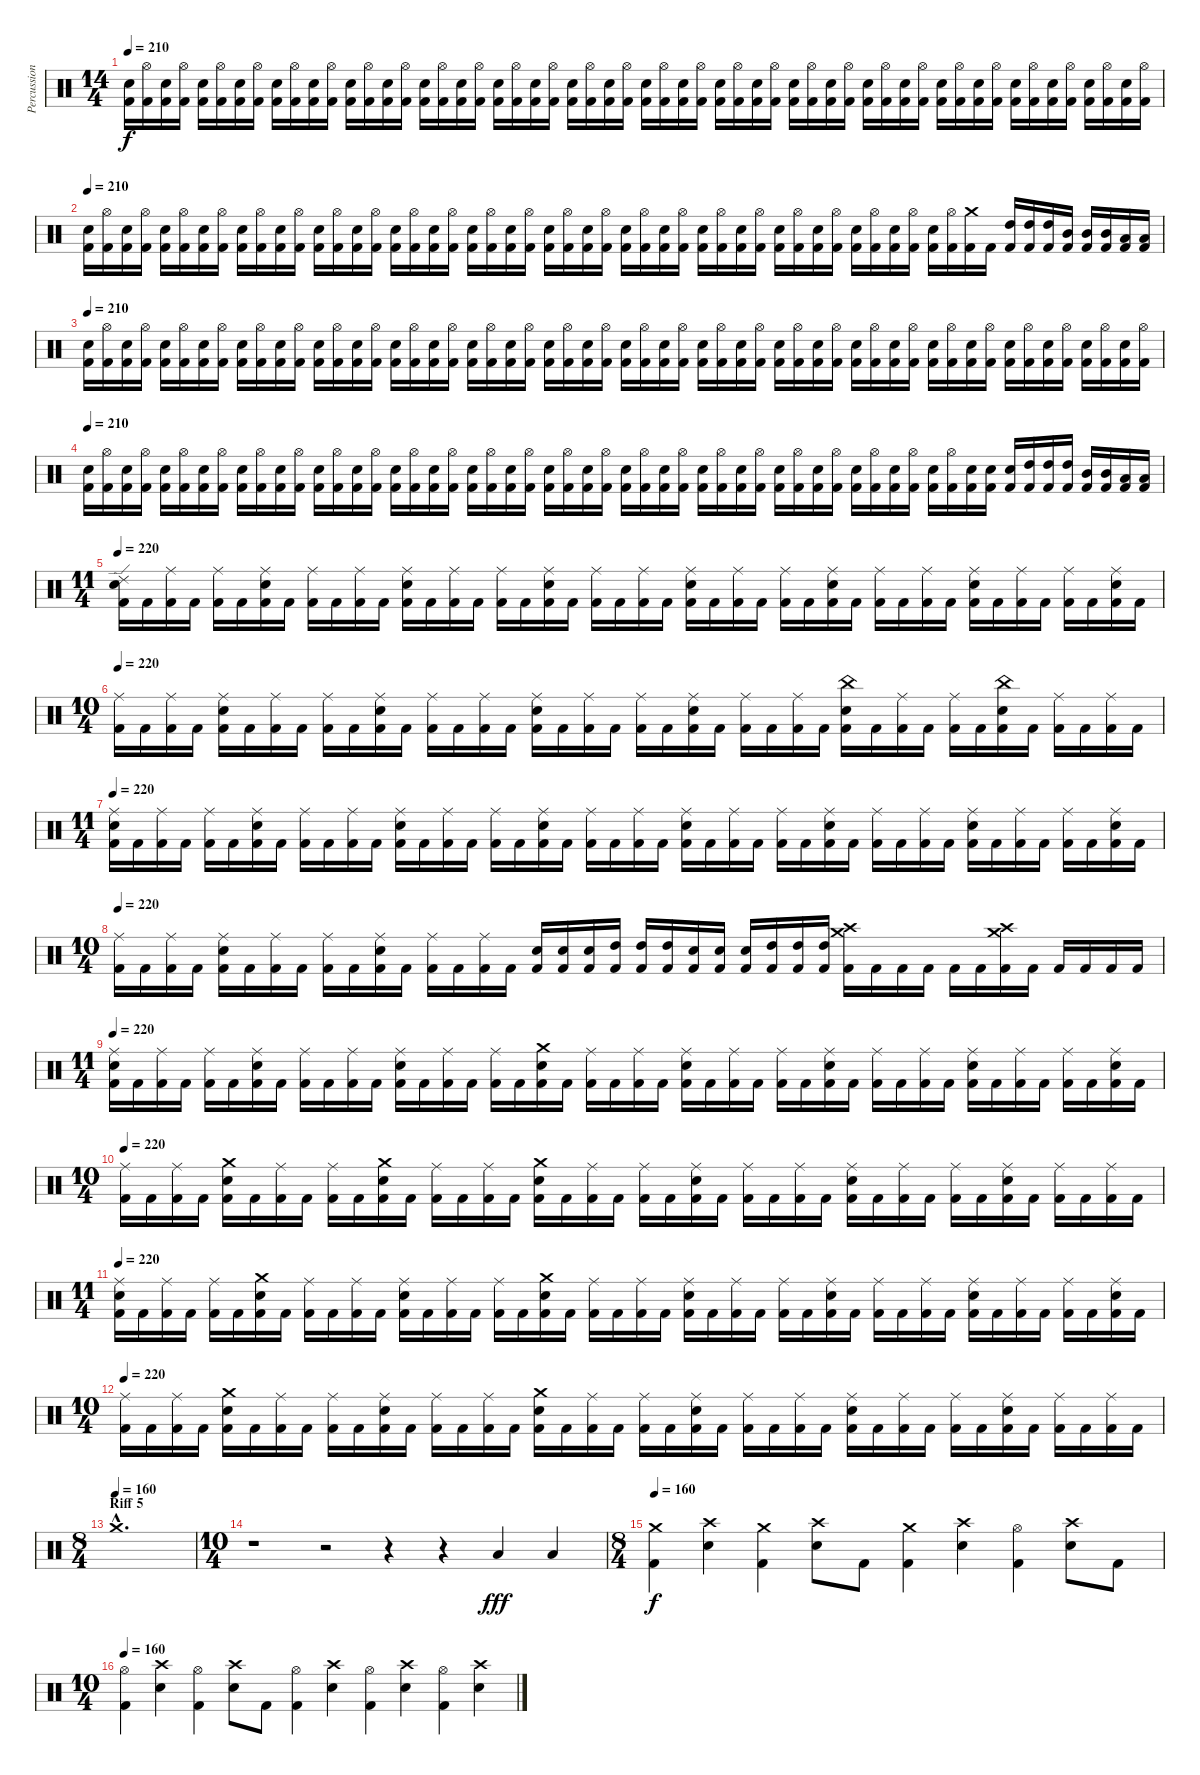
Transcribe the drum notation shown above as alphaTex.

\track ("Percussion" "Percussion") {instrument percussion}
\staff {score}
\articulation defaults
\ts (14 4)
\tempo 210
\clef neutral
\ks c
("Electric Snare (hit)" "Kick (hit) 2").16{dy f} ("Hi-Hat (open)" "Kick (hit) 2").16 ("Electric Snare (hit)" "Kick (hit) 2").16 ("Hi-Hat (open)" "Kick (hit) 2").16 ("Electric Snare (hit)" "Kick (hit) 2").16 ("Hi-Hat (open)" "Kick (hit) 2").16 ("Electric Snare (hit)" "Kick (hit) 2").16 ("Hi-Hat (open)" "Kick (hit) 2").16 ("Electric Snare (hit)" "Kick (hit) 2").16 ("Hi-Hat (open)" "Kick (hit) 2").16 ("Electric Snare (hit)" "Kick (hit) 2").16 ("Hi-Hat (open)" "Kick (hit) 2").16 ("Electric Snare (hit)" "Kick (hit) 2").16 ("Hi-Hat (open)" "Kick (hit) 2").16 ("Electric Snare (hit)" "Kick (hit) 2").16 ("Hi-Hat (open)" "Kick (hit) 2").16 ("Electric Snare (hit)" "Kick (hit) 2").16 ("Hi-Hat (open)" "Kick (hit) 2").16 ("Electric Snare (hit)" "Kick (hit) 2").16 ("Hi-Hat (open)" "Kick (hit) 2").16 ("Electric Snare (hit)" "Kick (hit) 2").16 ("Hi-Hat (open)" "Kick (hit) 2").16 ("Electric Snare (hit)" "Kick (hit) 2").16 ("Hi-Hat (open)" "Kick (hit) 2").16 ("Electric Snare (hit)" "Kick (hit) 2").16 ("Hi-Hat (open)" "Kick (hit) 2").16 ("Electric Snare (hit)" "Kick (hit) 2").16 ("Hi-Hat (open)" "Kick (hit) 2").16 ("Electric Snare (hit)" "Kick (hit) 2").16 ("Hi-Hat (open)" "Kick (hit) 2").16 ("Electric Snare (hit)" "Kick (hit) 2").16 ("Hi-Hat (open)" "Kick (hit) 2").16 ("Electric Snare (hit)" "Kick (hit) 2").16 ("Hi-Hat (open)" "Kick (hit) 2").16 ("Electric Snare (hit)" "Kick (hit) 2").16 ("Hi-Hat (open)" "Kick (hit) 2").16 ("Electric Snare (hit)" "Kick (hit) 2").16 ("Hi-Hat (open)" "Kick (hit) 2").16 ("Electric Snare (hit)" "Kick (hit) 2").16 ("Hi-Hat (open)" "Kick (hit) 2").16 ("Electric Snare (hit)" "Kick (hit) 2").16 ("Hi-Hat (open)" "Kick (hit) 2").16 ("Electric Snare (hit)" "Kick (hit) 2").16 ("Hi-Hat (open)" "Kick (hit) 2").16 ("Electric Snare (hit)" "Kick (hit) 2").16 ("Hi-Hat (open)" "Kick (hit) 2").16 ("Electric Snare (hit)" "Kick (hit) 2").16 ("Hi-Hat (open)" "Kick (hit) 2").16 ("Electric Snare (hit)" "Kick (hit) 2").16 ("Hi-Hat (open)" "Kick (hit) 2").16 ("Electric Snare (hit)" "Kick (hit) 2").16 ("Hi-Hat (open)" "Kick (hit) 2").16 ("Electric Snare (hit)" "Kick (hit) 2").16 ("Hi-Hat (open)" "Kick (hit) 2").16 ("Electric Snare (hit)" "Kick (hit) 2").16 ("Hi-Hat (open)" "Kick (hit) 2").16 |
\tempo 210
("Electric Snare (hit)" "Kick (hit) 2").16 ("Hi-Hat (open)" "Kick (hit) 2").16 ("Electric Snare (hit)" "Kick (hit) 2").16 ("Hi-Hat (open)" "Kick (hit) 2").16 ("Electric Snare (hit)" "Kick (hit) 2").16 ("Hi-Hat (open)" "Kick (hit) 2").16 ("Electric Snare (hit)" "Kick (hit) 2").16 ("Hi-Hat (open)" "Kick (hit) 2").16 ("Electric Snare (hit)" "Kick (hit) 2").16 ("Hi-Hat (open)" "Kick (hit) 2").16 ("Electric Snare (hit)" "Kick (hit) 2").16 ("Hi-Hat (open)" "Kick (hit) 2").16 ("Electric Snare (hit)" "Kick (hit) 2").16 ("Hi-Hat (open)" "Kick (hit) 2").16 ("Electric Snare (hit)" "Kick (hit) 2").16 ("Hi-Hat (open)" "Kick (hit) 2").16 ("Electric Snare (hit)" "Kick (hit) 2").16 ("Hi-Hat (open)" "Kick (hit) 2").16 ("Electric Snare (hit)" "Kick (hit) 2").16 ("Hi-Hat (open)" "Kick (hit) 2").16 ("Electric Snare (hit)" "Kick (hit) 2").16 ("Hi-Hat (open)" "Kick (hit) 2").16 ("Electric Snare (hit)" "Kick (hit) 2").16 ("Hi-Hat (open)" "Kick (hit) 2").16 ("Electric Snare (hit)" "Kick (hit) 2").16 ("Hi-Hat (open)" "Kick (hit) 2").16 ("Electric Snare (hit)" "Kick (hit) 2").16 ("Hi-Hat (open)" "Kick (hit) 2").16 ("Electric Snare (hit)" "Kick (hit) 2").16 ("Hi-Hat (open)" "Kick (hit) 2").16 ("Electric Snare (hit)" "Kick (hit) 2").16 ("Hi-Hat (open)" "Kick (hit) 2").16 ("Electric Snare (hit)" "Kick (hit) 2").16 ("Hi-Hat (open)" "Kick (hit) 2").16 ("Electric Snare (hit)" "Kick (hit) 2").16 ("Hi-Hat (open)" "Kick (hit) 2").16 ("Electric Snare (hit)" "Kick (hit) 2").16 ("Hi-Hat (open)" "Kick (hit) 2").16 ("Electric Snare (hit)" "Kick (hit) 2").16 ("Hi-Hat (open)" "Kick (hit) 2").16 ("Electric Snare (hit)" "Kick (hit) 2").16 ("Hi-Hat (open)" "Kick (hit) 2").16 ("Electric Snare (hit)" "Kick (hit) 2").16 ("Hi-Hat (open)" "Kick (hit) 2").16 ("Electric Snare (hit)" "Kick (hit) 2").16 ("Hi-Hat (open)" "Kick (hit) 2").16 ("Crash medium (hit)" "Kick (hit) 2").16 "Kick (hit) 2".16 ("High Tom (hit)" "Kick (hit) 2").16 ("High Tom (hit)" "Kick (hit) 2").16 ("High Tom (hit)" "Kick (hit) 2").16 ("Mid Tom (hit)" "Kick (hit) 2").16 ("Mid Tom (hit)" "Kick (hit) 2").16 ("Mid Tom (hit)" "Kick (hit) 2").16 ("Low Tom (hit)" "Kick (hit) 2").16 ("Low Tom (hit)" "Kick (hit) 2").16 |
\tempo 210
("Electric Snare (hit)" "Kick (hit) 2").16 ("Hi-Hat (open)" "Kick (hit) 2").16 ("Electric Snare (hit)" "Kick (hit) 2").16 ("Hi-Hat (open)" "Kick (hit) 2").16 ("Electric Snare (hit)" "Kick (hit) 2").16 ("Hi-Hat (open)" "Kick (hit) 2").16 ("Electric Snare (hit)" "Kick (hit) 2").16 ("Hi-Hat (open)" "Kick (hit) 2").16 ("Electric Snare (hit)" "Kick (hit) 2").16 ("Hi-Hat (open)" "Kick (hit) 2").16 ("Electric Snare (hit)" "Kick (hit) 2").16 ("Hi-Hat (open)" "Kick (hit) 2").16 ("Electric Snare (hit)" "Kick (hit) 2").16 ("Hi-Hat (open)" "Kick (hit) 2").16 ("Electric Snare (hit)" "Kick (hit) 2").16 ("Hi-Hat (open)" "Kick (hit) 2").16 ("Electric Snare (hit)" "Kick (hit) 2").16 ("Hi-Hat (open)" "Kick (hit) 2").16 ("Electric Snare (hit)" "Kick (hit) 2").16 ("Hi-Hat (open)" "Kick (hit) 2").16 ("Electric Snare (hit)" "Kick (hit) 2").16 ("Hi-Hat (open)" "Kick (hit) 2").16 ("Electric Snare (hit)" "Kick (hit) 2").16 ("Hi-Hat (open)" "Kick (hit) 2").16 ("Electric Snare (hit)" "Kick (hit) 2").16 ("Hi-Hat (open)" "Kick (hit) 2").16 ("Electric Snare (hit)" "Kick (hit) 2").16 ("Hi-Hat (open)" "Kick (hit) 2").16 ("Electric Snare (hit)" "Kick (hit) 2").16 ("Hi-Hat (open)" "Kick (hit) 2").16 ("Electric Snare (hit)" "Kick (hit) 2").16 ("Hi-Hat (open)" "Kick (hit) 2").16 ("Electric Snare (hit)" "Kick (hit) 2").16 ("Hi-Hat (open)" "Kick (hit) 2").16 ("Electric Snare (hit)" "Kick (hit) 2").16 ("Hi-Hat (open)" "Kick (hit) 2").16 ("Electric Snare (hit)" "Kick (hit) 2").16 ("Hi-Hat (open)" "Kick (hit) 2").16 ("Electric Snare (hit)" "Kick (hit) 2").16 ("Hi-Hat (open)" "Kick (hit) 2").16 ("Electric Snare (hit)" "Kick (hit) 2").16 ("Hi-Hat (open)" "Kick (hit) 2").16 ("Electric Snare (hit)" "Kick (hit) 2").16 ("Hi-Hat (open)" "Kick (hit) 2").16 ("Electric Snare (hit)" "Kick (hit) 2").16 ("Hi-Hat (open)" "Kick (hit) 2").16 ("Electric Snare (hit)" "Kick (hit) 2").16 ("Hi-Hat (open)" "Kick (hit) 2").16 ("Electric Snare (hit)" "Kick (hit) 2").16 ("Hi-Hat (open)" "Kick (hit) 2").16 ("Electric Snare (hit)" "Kick (hit) 2").16 ("Hi-Hat (open)" "Kick (hit) 2").16 ("Electric Snare (hit)" "Kick (hit) 2").16 ("Hi-Hat (open)" "Kick (hit) 2").16 ("Electric Snare (hit)" "Kick (hit) 2").16 ("Hi-Hat (open)" "Kick (hit) 2").16 |
\tempo 210
("Electric Snare (hit)" "Kick (hit) 2").16 ("Hi-Hat (open)" "Kick (hit) 2").16 ("Electric Snare (hit)" "Kick (hit) 2").16 ("Hi-Hat (open)" "Kick (hit) 2").16 ("Electric Snare (hit)" "Kick (hit) 2").16 ("Hi-Hat (open)" "Kick (hit) 2").16 ("Electric Snare (hit)" "Kick (hit) 2").16 ("Hi-Hat (open)" "Kick (hit) 2").16 ("Electric Snare (hit)" "Kick (hit) 2").16 ("Hi-Hat (open)" "Kick (hit) 2").16 ("Electric Snare (hit)" "Kick (hit) 2").16 ("Hi-Hat (open)" "Kick (hit) 2").16 ("Electric Snare (hit)" "Kick (hit) 2").16 ("Hi-Hat (open)" "Kick (hit) 2").16 ("Electric Snare (hit)" "Kick (hit) 2").16 ("Hi-Hat (open)" "Kick (hit) 2").16 ("Electric Snare (hit)" "Kick (hit) 2").16 ("Hi-Hat (open)" "Kick (hit) 2").16 ("Electric Snare (hit)" "Kick (hit) 2").16 ("Hi-Hat (open)" "Kick (hit) 2").16 ("Electric Snare (hit)" "Kick (hit) 2").16 ("Hi-Hat (open)" "Kick (hit) 2").16 ("Electric Snare (hit)" "Kick (hit) 2").16 ("Hi-Hat (open)" "Kick (hit) 2").16 ("Electric Snare (hit)" "Kick (hit) 2").16 ("Hi-Hat (open)" "Kick (hit) 2").16 ("Electric Snare (hit)" "Kick (hit) 2").16 ("Hi-Hat (open)" "Kick (hit) 2").16 ("Electric Snare (hit)" "Kick (hit) 2").16 ("Hi-Hat (open)" "Kick (hit) 2").16 ("Electric Snare (hit)" "Kick (hit) 2").16 ("Hi-Hat (open)" "Kick (hit) 2").16 ("Electric Snare (hit)" "Kick (hit) 2").16 ("Hi-Hat (open)" "Kick (hit) 2").16 ("Electric Snare (hit)" "Kick (hit) 2").16 ("Hi-Hat (open)" "Kick (hit) 2").16 ("Electric Snare (hit)" "Kick (hit) 2").16 ("Hi-Hat (open)" "Kick (hit) 2").16 ("Electric Snare (hit)" "Kick (hit) 2").16 ("Hi-Hat (open)" "Kick (hit) 2").16 ("Electric Snare (hit)" "Kick (hit) 2").16 ("Hi-Hat (open)" "Kick (hit) 2").16 ("Electric Snare (hit)" "Kick (hit) 2").16 ("Hi-Hat (open)" "Kick (hit) 2").16 ("Electric Snare (hit)" "Kick (hit) 2").16 ("Hi-Hat (open)" "Kick (hit) 2").16 ("Electric Snare (hit)" "Kick (hit) 2").16 ("Electric Snare (hit)" "Kick (hit) 2").16 ("Electric Snare (hit)" "Kick (hit) 2").16 ("High Tom (hit)" "Kick (hit) 2").16 ("High Tom (hit)" "Kick (hit) 2").16 ("High Tom (hit)" "Kick (hit) 2").16 ("Mid Tom (hit)" "Kick (hit) 2").16 ("Mid Tom (hit)" "Kick (hit) 2").16 ("Low Tom (hit)" "Kick (hit) 2").16 ("Low Tom (hit)" "Kick (hit) 2").16 |
\ts (11 4)
\tempo 220
("Kick (hit) 2" "Electric Snare (hit)" "Ride (edge) 2").16 "Kick (hit) 2".16 ("Kick (hit) 2" "Ride (middle)").16 "Kick (hit) 2".16 ("Kick (hit) 2" "Ride (middle)").16 "Kick (hit) 2".16 ("Kick (hit) 2" "Electric Snare (hit)" "Ride (middle)").16 "Kick (hit) 2".16 ("Kick (hit) 2" "Ride (middle)").16 "Kick (hit) 2".16 ("Kick (hit) 2" "Ride (middle)").16 "Kick (hit) 2".16 ("Kick (hit) 2" "Electric Snare (hit)" "Ride (middle)").16 "Kick (hit) 2".16 ("Kick (hit) 2" "Ride (middle)").16 "Kick (hit) 2".16 ("Kick (hit) 2" "Ride (middle)").16 "Kick (hit) 2".16 ("Kick (hit) 2" "Electric Snare (hit)" "Ride (middle)").16 "Kick (hit) 2".16 ("Kick (hit) 2" "Ride (middle)").16 "Kick (hit) 2".16 ("Kick (hit) 2" "Ride (middle)").16 "Kick (hit) 2".16 ("Kick (hit) 2" "Electric Snare (hit)" "Ride (middle)").16 "Kick (hit) 2".16 ("Kick (hit) 2" "Ride (middle)").16 "Kick (hit) 2".16 ("Kick (hit) 2" "Ride (middle)").16 "Kick (hit) 2".16 ("Kick (hit) 2" "Electric Snare (hit)" "Ride (middle)").16 "Kick (hit) 2".16 ("Kick (hit) 2" "Ride (middle)").16 "Kick (hit) 2".16 ("Kick (hit) 2" "Ride (middle)").16 "Kick (hit) 2".16 ("Kick (hit) 2" "Electric Snare (hit)" "Ride (middle)").16 "Kick (hit) 2".16 ("Kick (hit) 2" "Ride (middle)").16 "Kick (hit) 2".16 ("Kick (hit) 2" "Ride (middle)").16 "Kick (hit) 2".16 ("Kick (hit) 2" "Electric Snare (hit)" "Ride (middle)").16 "Kick (hit) 2".16 |
\ts (10 4)
\tempo 220
("Kick (hit) 2" "Ride (middle)").16 "Kick (hit) 2".16 ("Kick (hit) 2" "Ride (middle)").16 "Kick (hit) 2".16 ("Kick (hit) 2" "Electric Snare (hit)" "Ride (middle)").16 "Kick (hit) 2".16 ("Kick (hit) 2" "Ride (middle)").16 "Kick (hit) 2".16 ("Kick (hit) 2" "Ride (middle)").16 "Kick (hit) 2".16 ("Kick (hit) 2" "Electric Snare (hit)" "Ride (middle)").16 "Kick (hit) 2".16 ("Kick (hit) 2" "Ride (middle)").16 "Kick (hit) 2".16 ("Kick (hit) 2" "Ride (middle)").16 "Kick (hit) 2".16 ("Kick (hit) 2" "Electric Snare (hit)" "Ride (middle)").16 "Kick (hit) 2".16 ("Kick (hit) 2" "Ride (middle)").16 "Kick (hit) 2".16 ("Kick (hit) 2" "Ride (middle)").16 "Kick (hit) 2".16 ("Kick (hit) 2" "Electric Snare (hit)" "Ride (middle)").16 "Kick (hit) 2".16 ("Kick (hit) 2" "Ride (middle)").16 "Kick (hit) 2".16 ("Kick (hit) 2" "Ride (middle)").16 "Kick (hit) 2".16 ("Kick (hit) 2" "Electric Snare (hit)" "China (hit)").16 "Kick (hit) 2".16 ("Kick (hit) 2" "Ride (middle)").16 "Kick (hit) 2".16 ("Kick (hit) 2" "Ride (middle)").16 "Kick (hit) 2".16 ("Kick (hit) 2" "Electric Snare (hit)" "China (hit)").16 "Kick (hit) 2".16 ("Kick (hit) 2" "Ride (middle)").16 "Kick (hit) 2".16 ("Kick (hit) 2" "Ride (middle)").16 "Kick (hit) 2".16 |
\ts (11 4)
\tempo 220
("Kick (hit) 2" "Electric Snare (hit)" "Ride (middle)").16 "Kick (hit) 2".16 ("Kick (hit) 2" "Ride (middle)").16 "Kick (hit) 2".16 ("Kick (hit) 2" "Ride (middle)").16 "Kick (hit) 2".16 ("Kick (hit) 2" "Electric Snare (hit)" "Ride (middle)").16 "Kick (hit) 2".16 ("Kick (hit) 2" "Ride (middle)").16 "Kick (hit) 2".16 ("Kick (hit) 2" "Ride (middle)").16 "Kick (hit) 2".16 ("Kick (hit) 2" "Electric Snare (hit)" "Ride (middle)").16 "Kick (hit) 2".16 ("Kick (hit) 2" "Ride (middle)").16 "Kick (hit) 2".16 ("Kick (hit) 2" "Ride (middle)").16 "Kick (hit) 2".16 ("Kick (hit) 2" "Electric Snare (hit)" "Ride (middle)").16 "Kick (hit) 2".16 ("Kick (hit) 2" "Ride (middle)").16 "Kick (hit) 2".16 ("Kick (hit) 2" "Ride (middle)").16 "Kick (hit) 2".16 ("Kick (hit) 2" "Electric Snare (hit)" "Ride (middle)").16 "Kick (hit) 2".16 ("Kick (hit) 2" "Ride (middle)").16 "Kick (hit) 2".16 ("Kick (hit) 2" "Ride (middle)").16 "Kick (hit) 2".16 ("Kick (hit) 2" "Electric Snare (hit)" "Ride (middle)").16 "Kick (hit) 2".16 ("Kick (hit) 2" "Ride (middle)").16 "Kick (hit) 2".16 ("Kick (hit) 2" "Ride (middle)").16 "Kick (hit) 2".16 ("Kick (hit) 2" "Electric Snare (hit)" "Ride (middle)").16 "Kick (hit) 2".16 ("Kick (hit) 2" "Ride (middle)").16 "Kick (hit) 2".16 ("Kick (hit) 2" "Ride (middle)").16 "Kick (hit) 2".16 ("Kick (hit) 2" "Electric Snare (hit)" "Ride (middle)").16 "Kick (hit) 2".16 |
\ts (10 4)
\tempo 220
("Kick (hit) 2" "Ride (middle)").16 "Kick (hit) 2".16 ("Kick (hit) 2" "Ride (middle)").16 "Kick (hit) 2".16 ("Kick (hit) 2" "Electric Snare (hit)" "Ride (middle)").16 "Kick (hit) 2".16 ("Kick (hit) 2" "Ride (middle)").16 "Kick (hit) 2".16 ("Kick (hit) 2" "Ride (middle)").16 "Kick (hit) 2".16 ("Kick (hit) 2" "Electric Snare (hit)" "Ride (middle)").16 "Kick (hit) 2".16 ("Kick (hit) 2" "Ride (middle)").16 "Kick (hit) 2".16 ("Kick (hit) 2" "Ride (middle)").16 "Kick (hit) 2".16 ("Kick (hit) 2" "Electric Snare (hit)").16 ("Kick (hit) 2" "Electric Snare (hit)").16 ("Kick (hit) 2" "Electric Snare (hit)").16 ("Kick (hit) 2" "High Tom (hit)").16 ("Kick (hit) 2" "High Tom (hit)").16 ("Kick (hit) 2" "High Tom (hit)").16 ("Kick (hit) 2" "Electric Snare (hit)").16 ("Kick (hit) 2" "Electric Snare (hit)").16 ("Kick (hit) 2" "Electric Snare (hit)").16 ("Kick (hit) 2" "High Tom (hit)").16 ("Kick (hit) 2" "High Tom (hit)").16 ("Kick (hit) 2" "High Tom (hit)").16 ("Kick (hit) 2" "Crash high (hit)" "Crash medium (hit)").16 "Kick (hit) 2".16 "Kick (hit) 2".16 "Kick (hit) 2".16 "Kick (hit) 2".16 "Kick (hit) 2".16 ("Kick (hit) 2" "Crash high (hit)" "Crash medium (hit)").16 "Kick (hit) 2".16 "Kick (hit) 2".16 "Kick (hit) 2".16 "Kick (hit) 2".16 "Kick (hit) 2".16 |
\ts (11 4)
\tempo 220
("Kick (hit) 2" "Electric Snare (hit)" "Ride (middle)").16 "Kick (hit) 2".16 ("Kick (hit) 2" "Ride (middle)").16 "Kick (hit) 2".16 ("Kick (hit) 2" "Ride (middle)").16 "Kick (hit) 2".16 ("Kick (hit) 2" "Electric Snare (hit)" "Ride (middle)").16 "Kick (hit) 2".16 ("Kick (hit) 2" "Ride (middle)").16 "Kick (hit) 2".16 ("Kick (hit) 2" "Ride (middle)").16 "Kick (hit) 2".16 ("Kick (hit) 2" "Electric Snare (hit)" "Ride (middle)").16 "Kick (hit) 2".16 ("Kick (hit) 2" "Ride (middle)").16 "Kick (hit) 2".16 ("Kick (hit) 2" "Ride (middle)").16 "Kick (hit) 2".16 ("Kick (hit) 2" "Electric Snare (hit)" "Crash medium (hit)").16 "Kick (hit) 2".16 ("Kick (hit) 2" "Ride (middle)").16 "Kick (hit) 2".16 ("Kick (hit) 2" "Ride (middle)").16 "Kick (hit) 2".16 ("Kick (hit) 2" "Electric Snare (hit)" "Ride (middle)").16 "Kick (hit) 2".16 ("Kick (hit) 2" "Ride (middle)").16 "Kick (hit) 2".16 ("Kick (hit) 2" "Ride (middle)").16 "Kick (hit) 2".16 ("Kick (hit) 2" "Electric Snare (hit)" "Ride (middle)").16 "Kick (hit) 2".16 ("Kick (hit) 2" "Ride (middle)").16 "Kick (hit) 2".16 ("Kick (hit) 2" "Ride (middle)").16 "Kick (hit) 2".16 ("Kick (hit) 2" "Electric Snare (hit)" "Ride (middle)").16 "Kick (hit) 2".16 ("Kick (hit) 2" "Ride (middle)").16 "Kick (hit) 2".16 ("Kick (hit) 2" "Ride (middle)").16 "Kick (hit) 2".16 ("Kick (hit) 2" "Electric Snare (hit)" "Ride (middle)").16 "Kick (hit) 2".16 |
\ts (10 4)
\tempo 220
("Kick (hit) 2" "Ride (middle)").16 "Kick (hit) 2".16 ("Kick (hit) 2" "Ride (middle)").16 "Kick (hit) 2".16 ("Kick (hit) 2" "Electric Snare (hit)" "Crash medium (hit)").16 "Kick (hit) 2".16 ("Kick (hit) 2" "Ride (middle)").16 "Kick (hit) 2".16 ("Kick (hit) 2" "Ride (middle)").16 "Kick (hit) 2".16 ("Kick (hit) 2" "Electric Snare (hit)" "Crash medium (hit)").16 "Kick (hit) 2".16 ("Kick (hit) 2" "Ride (middle)").16 "Kick (hit) 2".16 ("Kick (hit) 2" "Ride (middle)").16 "Kick (hit) 2".16 ("Kick (hit) 2" "Electric Snare (hit)" "Crash medium (hit)").16 "Kick (hit) 2".16 ("Kick (hit) 2" "Ride (middle)").16 "Kick (hit) 2".16 ("Kick (hit) 2" "Ride (middle)").16 "Kick (hit) 2".16 ("Kick (hit) 2" "Electric Snare (hit)" "Ride (middle)").16 "Kick (hit) 2".16 ("Kick (hit) 2" "Ride (middle)").16 "Kick (hit) 2".16 ("Kick (hit) 2" "Ride (middle)").16 "Kick (hit) 2".16 ("Kick (hit) 2" "Electric Snare (hit)" "Ride (middle)").16 "Kick (hit) 2".16 ("Kick (hit) 2" "Ride (middle)").16 "Kick (hit) 2".16 ("Kick (hit) 2" "Ride (middle)").16 "Kick (hit) 2".16 ("Kick (hit) 2" "Electric Snare (hit)" "Ride (middle)").16 "Kick (hit) 2".16 ("Kick (hit) 2" "Ride (middle)").16 "Kick (hit) 2".16 ("Kick (hit) 2" "Ride (middle)").16 "Kick (hit) 2".16 |
\ts (11 4)
\tempo 220
("Kick (hit) 2" "Electric Snare (hit)" "Ride (middle)").16 "Kick (hit) 2".16 ("Kick (hit) 2" "Ride (middle)").16 "Kick (hit) 2".16 ("Kick (hit) 2" "Ride (middle)").16 "Kick (hit) 2".16 ("Kick (hit) 2" "Electric Snare (hit)" "Crash medium (hit)").16 "Kick (hit) 2".16 ("Kick (hit) 2" "Ride (middle)").16 "Kick (hit) 2".16 ("Kick (hit) 2" "Ride (middle)").16 "Kick (hit) 2".16 ("Kick (hit) 2" "Electric Snare (hit)" "Ride (middle)").16 "Kick (hit) 2".16 ("Kick (hit) 2" "Ride (middle)").16 "Kick (hit) 2".16 ("Kick (hit) 2" "Ride (middle)").16 "Kick (hit) 2".16 ("Kick (hit) 2" "Electric Snare (hit)" "Crash medium (hit)").16 "Kick (hit) 2".16 ("Kick (hit) 2" "Ride (middle)").16 "Kick (hit) 2".16 ("Kick (hit) 2" "Ride (middle)").16 "Kick (hit) 2".16 ("Kick (hit) 2" "Electric Snare (hit)" "Ride (middle)").16 "Kick (hit) 2".16 ("Kick (hit) 2" "Ride (middle)").16 "Kick (hit) 2".16 ("Kick (hit) 2" "Ride (middle)").16 "Kick (hit) 2".16 ("Kick (hit) 2" "Electric Snare (hit)" "Ride (middle)").16 "Kick (hit) 2".16 ("Kick (hit) 2" "Ride (middle)").16 "Kick (hit) 2".16 ("Kick (hit) 2" "Ride (middle)").16 "Kick (hit) 2".16 ("Kick (hit) 2" "Electric Snare (hit)" "Ride (middle)").16 "Kick (hit) 2".16 ("Kick (hit) 2" "Ride (middle)").16 "Kick (hit) 2".16 ("Kick (hit) 2" "Ride (middle)").16 "Kick (hit) 2".16 ("Kick (hit) 2" "Electric Snare (hit)" "Ride (middle)").16 "Kick (hit) 2".16 |
\ts (10 4)
\tempo 220
("Kick (hit) 2" "Ride (middle)").16 "Kick (hit) 2".16 ("Kick (hit) 2" "Ride (middle)").16 "Kick (hit) 2".16 ("Kick (hit) 2" "Electric Snare (hit)" "Crash medium (hit)").16 "Kick (hit) 2".16 ("Kick (hit) 2" "Ride (middle)").16 "Kick (hit) 2".16 ("Kick (hit) 2" "Ride (middle)").16 "Kick (hit) 2".16 ("Kick (hit) 2" "Electric Snare (hit)" "Ride (middle)").16 "Kick (hit) 2".16 ("Kick (hit) 2" "Ride (middle)").16 "Kick (hit) 2".16 ("Kick (hit) 2" "Ride (middle)").16 "Kick (hit) 2".16 ("Kick (hit) 2" "Electric Snare (hit)" "Crash medium (hit)").16 "Kick (hit) 2".16 ("Kick (hit) 2" "Ride (middle)").16 "Kick (hit) 2".16 ("Kick (hit) 2" "Ride (middle)").16 "Kick (hit) 2".16 ("Kick (hit) 2" "Electric Snare (hit)" "Ride (middle)").16 "Kick (hit) 2".16 ("Kick (hit) 2" "Ride (middle)").16 "Kick (hit) 2".16 ("Kick (hit) 2" "Ride (middle)").16 "Kick (hit) 2".16 ("Kick (hit) 2" "Electric Snare (hit)" "Ride (middle)").16 "Kick (hit) 2".16 ("Kick (hit) 2" "Ride (middle)").16 "Kick (hit) 2".16 ("Kick (hit) 2" "Ride (middle)").16 "Kick (hit) 2".16 ("Kick (hit) 2" "Electric Snare (hit)" "Ride (middle)").16 "Kick (hit) 2".16 ("Kick (hit) 2" "Ride (middle)").16 "Kick (hit) 2".16 ("Kick (hit) 2" "Ride (middle)").16 "Kick (hit) 2".16 |
\ts (8 4)
\section ("" "Riff 5")
\tempo (160)
"Crash medium (hit)"{hac}.1{d} |
\ts (10 4)
r.1 r.2 r.4 r.4 "Low Tom (hit)".4{dy fff} "Low Tom (hit)".4 |
\ts (8 4)
\tempo 160
("Crash medium (hit)" "Kick (hit) 2").4{dy f} ("Crash high (hit)" "Electric Snare (hit)").4 ("Crash medium (hit)" "Kick (hit) 2").4 ("Crash high (hit)" "Electric Snare (hit)").8 "Kick (hit) 2".8 ("Crash medium (hit)" "Kick (hit) 2").4 ("Crash high (hit)" "Electric Snare (hit)").4 ("Hi-Hat (open)" "Kick (hit) 2").4 ("Crash high (hit)" "Electric Snare (hit)").8 "Kick (hit) 2".8 |
\ts (10 4)
\tempo 160
("Hi-Hat (open)" "Kick (hit) 2").4 ("Crash high (hit)" "Electric Snare (hit)").4 ("Hi-Hat (open)" "Kick (hit) 2").4 ("Crash high (hit)" "Electric Snare (hit)").8 "Kick (hit) 2".8 ("Hi-Hat (open)" "Kick (hit) 2").4 ("Crash high (hit)" "Electric Snare (hit)").4 ("Hi-Hat (open)" "Kick (hit) 2").4 ("Crash high (hit)" "Electric Snare (hit)").4 ("Hi-Hat (open)" "Kick (hit) 2").4 ("Crash high (hit)" "Electric Snare (hit)").4
